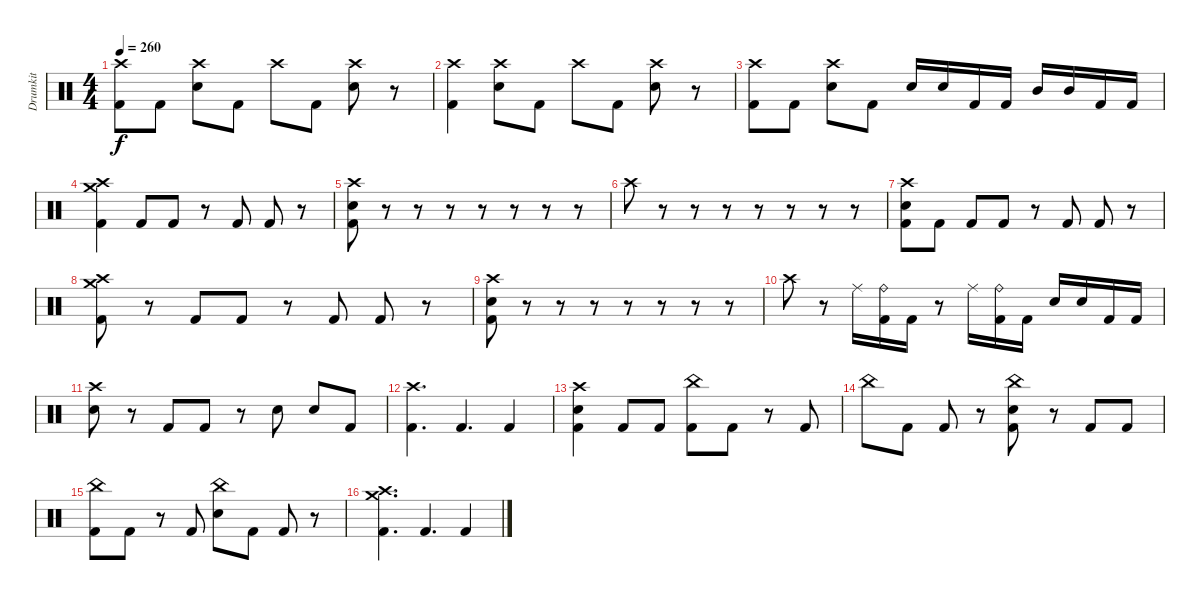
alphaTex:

\track ("Drumkit" "Drumkit") {instrument percussion}
\staff {score}
\articulation defaults
\ts (4 4)
\tempo 260
\clef neutral
\ks c
("Crash high (hit)" "Kick (hit) 2").8{dy f} "Kick (hit) 2".8 ("Crash high (hit)" "Electric Snare (hit)").8 "Kick (hit) 2".8 "Crash high (hit)".8 "Kick (hit) 2".8 ("Crash high (hit)" "Electric Snare (hit)").8 r.8 |
("Crash high (hit)" "Kick (hit) 2").4 ("Crash high (hit)" "Electric Snare (hit)").8 "Kick (hit) 2".8 "Crash high (hit)".8 "Kick (hit) 2".8 ("Crash high (hit)" "Electric Snare (hit)").8 r.8 |
("Crash high (hit)" "Kick (hit) 2").8 "Kick (hit) 2".8 ("Crash high (hit)" "Electric Snare (hit)").8 "Kick (hit) 2".8 "Electric Snare (hit)".16 "Electric Snare (hit)".16 "Kick (hit) 2".16 "Kick (hit) 2".16 "Mid Tom (hit)".16 "Mid Tom (hit)".16 "Kick (hit) 2".16 "Kick (hit) 2".16 |
("Crash medium (hit)" "Crash high (hit)" "Kick (hit) 2").4 "Kick (hit) 2".8 "Kick (hit) 2".8 r.8 "Kick (hit) 2".8 "Kick (hit) 2".8 r.8 |
("Crash high (hit)" "Electric Snare (hit)" "Kick (hit) 2").8 r.8 r.8 r.8 r.8 r.8 r.8 r.8 |
"Crash high (hit)".8 r.8 r.8 r.8 r.8 r.8 r.8 r.8 |
("Crash high (hit)" "Electric Snare (hit)" "Kick (hit) 2").8 "Kick (hit) 2".8 "Kick (hit) 2".8 "Kick (hit) 2".8 r.8 "Kick (hit) 2".8 "Kick (hit) 2".8 r.8 |
("Crash medium (hit)" "Crash high (hit)" "Kick (hit) 2").8 r.8 "Kick (hit) 2".8 "Kick (hit) 2".8 r.8 "Kick (hit) 2".8 "Kick (hit) 2".8 r.8 |
("Crash high (hit)" "Electric Snare (hit)" "Kick (hit) 2").8 r.8 r.8 r.8 r.8 r.8 r.8 r.8 |
"Crash high (hit)".8 r.8 "Ride (middle)".16 ("Ride (bell)" "Kick (hit) 2").16 "Kick (hit) 2".16 r.8 "Ride (middle)".16 ("Ride (bell)" "Kick (hit) 2").16 "Kick (hit) 2".16 "Electric Snare (hit)".16 "Electric Snare (hit)".16 "Kick (hit) 2".16 "Kick (hit) 2".16 |
("Crash high (hit)" "Electric Snare (hit)").8 r.8 "Kick (hit) 2".8 "Kick (hit) 2".8 r.8 "Electric Snare (hit)".8 "Electric Snare (hit)".8 "Kick (hit) 2".8 |
("Crash high (hit)" "Kick (hit) 2").4{d} "Kick (hit) 2".4{d} "Kick (hit) 2".4 |
("Crash high (hit)" "Electric Snare (hit)" "Kick (hit) 2").4 "Kick (hit) 2".8 "Kick (hit) 2".8 ("China (hit)" "Kick (hit) 2").8 "Kick (hit) 2".8 r.8 "Kick (hit) 2".8 |
"China (hit)".8 "Kick (hit) 2".8 "Kick (hit) 2".8 r.8 ("China (hit)" "Electric Snare (hit)" "Kick (hit) 2").8 r.8 "Kick (hit) 2".8 "Kick (hit) 2".8 |
("China (hit)" "Kick (hit) 2").8 "Kick (hit) 2".8 r.8 "Kick (hit) 2".8 ("China (hit)" "Electric Snare (hit)").8 "Kick (hit) 2".8 "Kick (hit) 2".8 r.8 |
("Crash medium (hit)" "Crash high (hit)" "Kick (hit) 2").4{d} "Kick (hit) 2".4{d} "Kick (hit) 2".4
